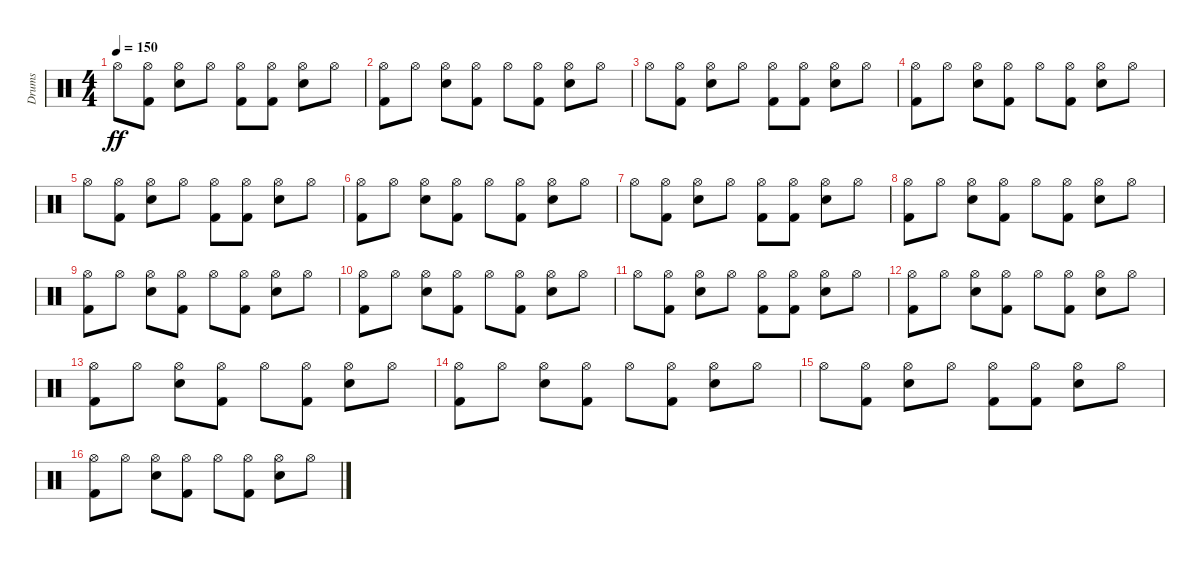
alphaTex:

\track ("Drums" "Drums") {instrument percussion}
\staff {score}
\articulation defaults
\ts (4 4)
\tempo 150
\clef neutral
\ks c "Hi-Hat (open)".8{dy ff}
("Kick (hit) 2" "Hi-Hat (open)").8 ("Snare (hit) 2" "Hi-Hat (open)").8 "Hi-Hat (open)".8 ("Kick (hit) 2" "Hi-Hat (open)").8 ("Kick (hit) 2" "Hi-Hat (open)").8 ("Snare (hit) 2" "Hi-Hat (open)").8 "Hi-Hat (open)".8 |
("Kick (hit) 2" "Hi-Hat (open)").8 "Hi-Hat (open)".8 ("Snare (hit) 2" "Hi-Hat (open)").8 ("Kick (hit) 2" "Hi-Hat (open)").8 "Hi-Hat (open)".8 ("Kick (hit) 2" "Hi-Hat (open)").8 ("Snare (hit) 2" "Hi-Hat (open)").8 "Hi-Hat (open)".8 |
"Hi-Hat (open)".8 ("Kick (hit) 2" "Hi-Hat (open)").8 ("Snare (hit) 2" "Hi-Hat (open)").8 "Hi-Hat (open)".8 ("Kick (hit) 2" "Hi-Hat (open)").8 ("Kick (hit) 2" "Hi-Hat (open)").8 ("Snare (hit) 2" "Hi-Hat (open)").8 "Hi-Hat (open)".8 |
("Kick (hit) 2" "Hi-Hat (open)").8 "Hi-Hat (open)".8 ("Snare (hit) 2" "Hi-Hat (open)").8 ("Kick (hit) 2" "Hi-Hat (open)").8 "Hi-Hat (open)".8 ("Kick (hit) 2" "Hi-Hat (open)").8 ("Snare (hit) 2" "Hi-Hat (open)").8 "Hi-Hat (open)".8 |
"Hi-Hat (open)".8 ("Kick (hit) 2" "Hi-Hat (open)").8 ("Snare (hit) 2" "Hi-Hat (open)").8 "Hi-Hat (open)".8 ("Kick (hit) 2" "Hi-Hat (open)").8 ("Kick (hit) 2" "Hi-Hat (open)").8 ("Snare (hit) 2" "Hi-Hat (open)").8 "Hi-Hat (open)".8 |
("Kick (hit) 2" "Hi-Hat (open)").8 "Hi-Hat (open)".8 ("Snare (hit) 2" "Hi-Hat (open)").8 ("Kick (hit) 2" "Hi-Hat (open)").8 "Hi-Hat (open)".8 ("Kick (hit) 2" "Hi-Hat (open)").8 ("Snare (hit) 2" "Hi-Hat (open)").8 "Hi-Hat (open)".8 |
"Hi-Hat (open)".8 ("Kick (hit) 2" "Hi-Hat (open)").8 ("Snare (hit) 2" "Hi-Hat (open)").8 "Hi-Hat (open)".8 ("Kick (hit) 2" "Hi-Hat (open)").8 ("Kick (hit) 2" "Hi-Hat (open)").8 ("Snare (hit) 2" "Hi-Hat (open)").8 "Hi-Hat (open)".8 |
("Kick (hit) 2" "Hi-Hat (open)").8 "Hi-Hat (open)".8 ("Snare (hit) 2" "Hi-Hat (open)").8 ("Kick (hit) 2" "Hi-Hat (open)").8 "Hi-Hat (open)".8 ("Kick (hit) 2" "Hi-Hat (open)").8 ("Snare (hit) 2" "Hi-Hat (open)").8 "Hi-Hat (open)".8 |
("Kick (hit) 2" "Hi-Hat (open)").8 "Hi-Hat (open)".8 ("Snare (hit) 2" "Hi-Hat (open)").8 ("Kick (hit) 2" "Hi-Hat (open)").8 "Hi-Hat (open)".8 ("Kick (hit) 2" "Hi-Hat (open)").8 ("Snare (hit) 2" "Hi-Hat (open)").8 "Hi-Hat (open)".8 |
("Kick (hit) 2" "Hi-Hat (open)").8 "Hi-Hat (open)".8 ("Snare (hit) 2" "Hi-Hat (open)").8 ("Kick (hit) 2" "Hi-Hat (open)").8 "Hi-Hat (open)".8 ("Kick (hit) 2" "Hi-Hat (open)").8 ("Snare (hit) 2" "Hi-Hat (open)").8 "Hi-Hat (open)".8 |
"Hi-Hat (open)".8 ("Kick (hit) 2" "Hi-Hat (open)").8 ("Snare (hit) 2" "Hi-Hat (open)").8 "Hi-Hat (open)".8 ("Kick (hit) 2" "Hi-Hat (open)").8 ("Kick (hit) 2" "Hi-Hat (open)").8 ("Snare (hit) 2" "Hi-Hat (open)").8 "Hi-Hat (open)".8 |
("Kick (hit) 2" "Hi-Hat (open)").8 "Hi-Hat (open)".8 ("Snare (hit) 2" "Hi-Hat (open)").8 ("Kick (hit) 2" "Hi-Hat (open)").8 "Hi-Hat (open)".8 ("Kick (hit) 2" "Hi-Hat (open)").8 ("Snare (hit) 2" "Hi-Hat (open)").8 "Hi-Hat (open)".8 |
("Kick (hit) 2" "Hi-Hat (open)").8 "Hi-Hat (open)".8 ("Snare (hit) 2" "Hi-Hat (open)").8 ("Kick (hit) 2" "Hi-Hat (open)").8 "Hi-Hat (open)".8 ("Kick (hit) 2" "Hi-Hat (open)").8 ("Snare (hit) 2" "Hi-Hat (open)").8 "Hi-Hat (open)".8 |
("Kick (hit) 2" "Hi-Hat (open)").8 "Hi-Hat (open)".8 ("Snare (hit) 2" "Hi-Hat (open)").8 ("Kick (hit) 2" "Hi-Hat (open)").8 "Hi-Hat (open)".8 ("Kick (hit) 2" "Hi-Hat (open)").8 ("Snare (hit) 2" "Hi-Hat (open)").8 "Hi-Hat (open)".8 |
"Hi-Hat (open)".8 ("Kick (hit) 2" "Hi-Hat (open)").8 ("Snare (hit) 2" "Hi-Hat (open)").8 "Hi-Hat (open)".8 ("Kick (hit) 2" "Hi-Hat (open)").8 ("Kick (hit) 2" "Hi-Hat (open)").8 ("Snare (hit) 2" "Hi-Hat (open)").8 "Hi-Hat (open)".8 |
("Kick (hit) 2" "Hi-Hat (open)").8 "Hi-Hat (open)".8 ("Snare (hit) 2" "Hi-Hat (open)").8 ("Kick (hit) 2" "Hi-Hat (open)").8 "Hi-Hat (open)".8 ("Kick (hit) 2" "Hi-Hat (open)").8 ("Snare (hit) 2" "Hi-Hat (open)").8 "Hi-Hat (open)".8
